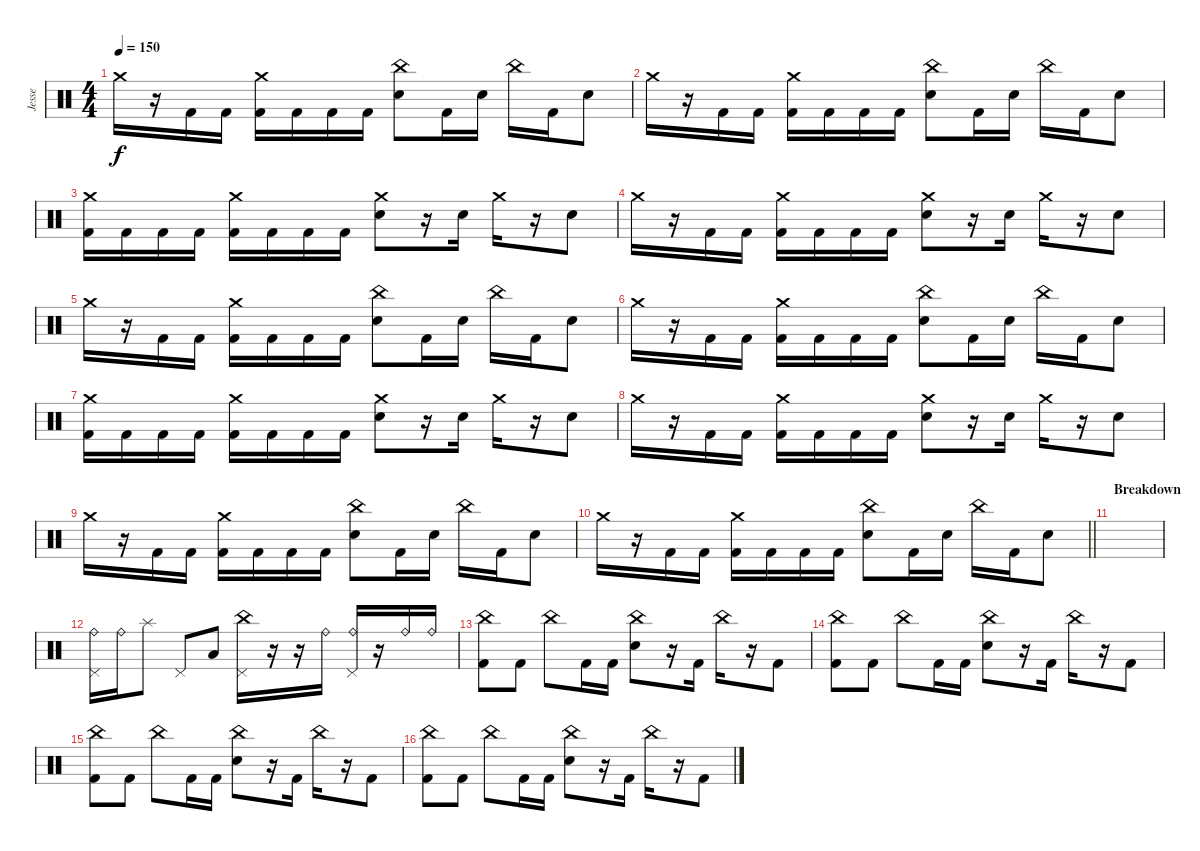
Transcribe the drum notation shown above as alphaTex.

\track ("Jesse" "Jesse") {instrument percussion}
\staff {score}
\articulation defaults
\ts (4 4)
\tempo 150
\clef neutral
\ks c "Crash medium (hit)".16{dy f}
r.16 "Kick (hit) 2".16 "Kick (hit) 2".16 ("Crash medium (hit)" "Kick (hit) 2").16 "Kick (hit) 2".16 "Kick (hit) 2".16 "Kick (hit) 2".16 ("China (hit)" "Electric Snare (hit)").8 "Kick (hit) 2".16 "Electric Snare (hit)".16 "China (hit)".16 "Kick (hit) 2".16 "Electric Snare (hit)".8 |
"Crash medium (hit)".16 r.16 "Kick (hit) 2".16 "Kick (hit) 2".16 ("Crash medium (hit)" "Kick (hit) 2").16 "Kick (hit) 2".16 "Kick (hit) 2".16 "Kick (hit) 2".16 ("China (hit)" "Electric Snare (hit)").8 "Kick (hit) 2".16 "Electric Snare (hit)".16 "China (hit)".16 "Kick (hit) 2".16 "Electric Snare (hit)".8 |
("Crash medium (hit)" "Kick (hit) 2").16 "Kick (hit) 2".16 "Kick (hit) 2".16 "Kick (hit) 2".16 ("Crash medium (hit)" "Kick (hit) 2").16 "Kick (hit) 2".16 "Kick (hit) 2".16 "Kick (hit) 2".16 ("Crash medium (hit)" "Electric Snare (hit)").8 r.16 "Electric Snare (hit)".16 "Crash medium (hit)".16 r.16 "Electric Snare (hit)".8 |
"Crash medium (hit)".16 r.16 "Kick (hit) 2".16 "Kick (hit) 2".16 ("Crash medium (hit)" "Kick (hit) 2").16 "Kick (hit) 2".16 "Kick (hit) 2".16 "Kick (hit) 2".16 ("Crash medium (hit)" "Electric Snare (hit)").8 r.16 "Electric Snare (hit)".16 "Crash medium (hit)".16 r.16 "Electric Snare (hit)".8 |
"Crash medium (hit)".16 r.16 "Kick (hit) 2".16 "Kick (hit) 2".16 ("Crash medium (hit)" "Kick (hit) 2").16 "Kick (hit) 2".16 "Kick (hit) 2".16 "Kick (hit) 2".16 ("China (hit)" "Electric Snare (hit)").8 "Kick (hit) 2".16 "Electric Snare (hit)".16 "China (hit)".16 "Kick (hit) 2".16 "Electric Snare (hit)".8 |
"Crash medium (hit)".16 r.16 "Kick (hit) 2".16 "Kick (hit) 2".16 ("Crash medium (hit)" "Kick (hit) 2").16 "Kick (hit) 2".16 "Kick (hit) 2".16 "Kick (hit) 2".16 ("China (hit)" "Electric Snare (hit)").8 "Kick (hit) 2".16 "Electric Snare (hit)".16 "China (hit)".16 "Kick (hit) 2".16 "Electric Snare (hit)".8 |
("Crash medium (hit)" "Kick (hit) 2").16 "Kick (hit) 2".16 "Kick (hit) 2".16 "Kick (hit) 2".16 ("Crash medium (hit)" "Kick (hit) 2").16 "Kick (hit) 2".16 "Kick (hit) 2".16 "Kick (hit) 2".16 ("Crash medium (hit)" "Electric Snare (hit)").8 r.16 "Electric Snare (hit)".16 "Crash medium (hit)".16 r.16 "Electric Snare (hit)".8 |
"Crash medium (hit)".16 r.16 "Kick (hit) 2".16 "Kick (hit) 2".16 ("Crash medium (hit)" "Kick (hit) 2").16 "Kick (hit) 2".16 "Kick (hit) 2".16 "Kick (hit) 2".16 ("Crash medium (hit)" "Electric Snare (hit)").8 r.16 "Electric Snare (hit)".16 "Crash medium (hit)".16 r.16 "Electric Snare (hit)".8 |
"Crash medium (hit)".16 r.16 "Kick (hit) 2".16 "Kick (hit) 2".16 ("Crash medium (hit)" "Kick (hit) 2").16 "Kick (hit) 2".16 "Kick (hit) 2".16 "Kick (hit) 2".16 ("China (hit)" "Electric Snare (hit)").8 "Kick (hit) 2".16 "Electric Snare (hit)".16 "China (hit)".16 "Kick (hit) 2".16 "Electric Snare (hit)".8 |
\barLineRight lightlight "Crash medium (hit)".16
r.16 "Kick (hit) 2".16 "Kick (hit) 2".16 ("Crash medium (hit)" "Kick (hit) 2").16 "Kick (hit) 2".16 "Kick (hit) 2".16 "Kick (hit) 2".16 ("China (hit)" "Electric Snare (hit)").8 "Kick (hit) 2".16 "Electric Snare (hit)".16 "China (hit)".16 "Kick (hit) 2".16 "Electric Snare (hit)".8 |
\section ("" "Breakdown")
|
("Pedal Hi-Hat (hit)" "Ride (bell)").16 "Ride (bell)".16 "Splash (hit)".8 "Pedal Hi-Hat (hit)".8 "Low Tom (hit)".8 ("China (hit)" "Pedal Hi-Hat (hit)").16 r.16 r.16 "Ride (bell)".16 ("Pedal Hi-Hat (hit)" "Ride (bell)").16 r.16 "Ride (bell)".16 "Ride (bell)".16 |
("China (hit)" "Kick (hit) 2").8 "Kick (hit) 2".8 "China (hit)".8 "Kick (hit) 2".16 "Kick (hit) 2".16 ("China (hit)" "Electric Snare (hit)").8 r.16 "Kick (hit) 2".16 "China (hit)".16 r.16 "Kick (hit) 2".8 |
("China (hit)" "Kick (hit) 2").8 "Kick (hit) 2".8 "China (hit)".8 "Kick (hit) 2".16 "Kick (hit) 2".16 ("China (hit)" "Electric Snare (hit)").8 r.16 "Kick (hit) 2".16 "China (hit)".16 r.16 "Kick (hit) 2".8 |
("China (hit)" "Kick (hit) 2").8 "Kick (hit) 2".8 "China (hit)".8 "Kick (hit) 2".16 "Kick (hit) 2".16 ("China (hit)" "Electric Snare (hit)").8 r.16 "Kick (hit) 2".16 "China (hit)".16 r.16 "Kick (hit) 2".8 |
("China (hit)" "Kick (hit) 2").8 "Kick (hit) 2".8 "China (hit)".8 "Kick (hit) 2".16 "Kick (hit) 2".16 ("China (hit)" "Electric Snare (hit)").8 r.16 "Kick (hit) 2".16 "China (hit)".16 r.16 "Kick (hit) 2".8
